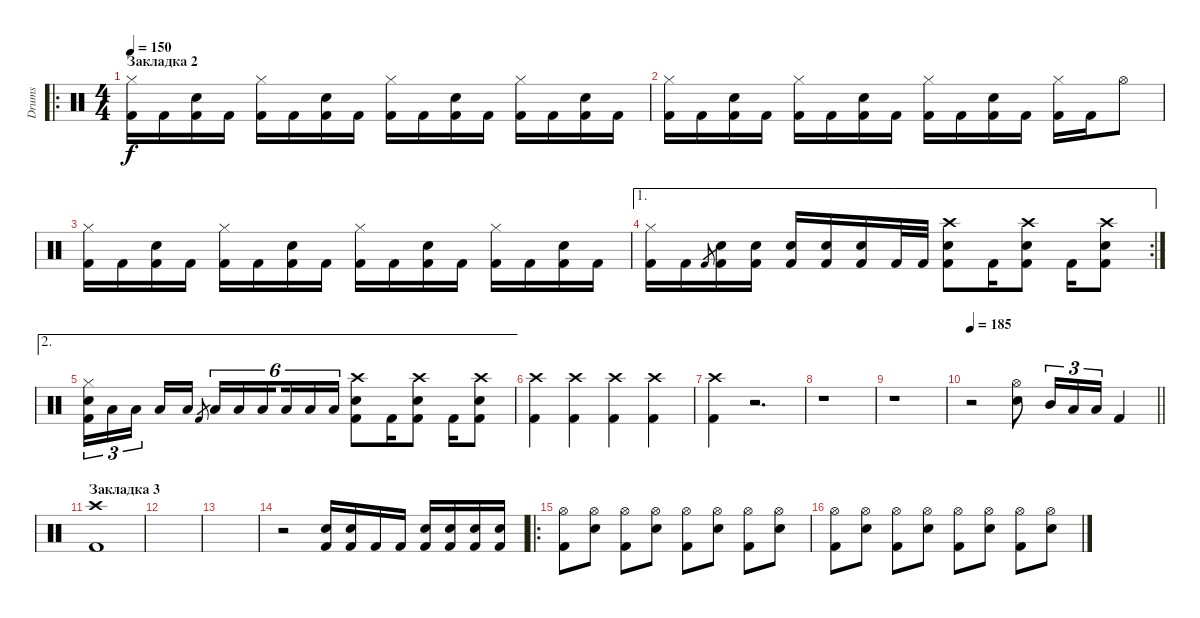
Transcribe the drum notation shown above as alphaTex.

\track ("Drums" "Drums") {instrument percussion}
\staff {score}
\articulation defaults
\ro
\ts (4 4)
\section ("" "Закладка 2")
\tempo 150
\clef neutral
\ks c
("Hi-Hat (closed)" "Kick (hit) 2").16{dy f} "Kick (hit) 2".16 ("Snare (hit) 2" "Kick (hit) 2").16 "Kick (hit) 2".16 ("Hi-Hat (closed)" "Kick (hit) 2").16 "Kick (hit) 2".16 ("Snare (hit) 2" "Kick (hit) 2").16 "Kick (hit) 2".16 ("Hi-Hat (closed)" "Kick (hit) 2").16 "Kick (hit) 2".16 ("Snare (hit) 2" "Kick (hit) 2").16 "Kick (hit) 2".16 ("Hi-Hat (closed)" "Kick (hit) 2").16 "Kick (hit) 2".16 ("Snare (hit) 2" "Kick (hit) 2").16 "Kick (hit) 2".16 |
("Hi-Hat (closed)" "Kick (hit) 2").16 "Kick (hit) 2".16 ("Snare (hit) 2" "Kick (hit) 2").16 "Kick (hit) 2".16 ("Hi-Hat (closed)" "Kick (hit) 2").16 "Kick (hit) 2".16 ("Snare (hit) 2" "Kick (hit) 2").16 "Kick (hit) 2".16 ("Hi-Hat (closed)" "Kick (hit) 2").16 "Kick (hit) 2".16 ("Snare (hit) 2" "Kick (hit) 2").16 "Kick (hit) 2".16 ("Hi-Hat (closed)" "Kick (hit) 2").16 "Kick (hit) 2".16 "Hi-Hat (open)".8 |
("Hi-Hat (closed)" "Kick (hit) 2").16 "Kick (hit) 2".16 ("Snare (hit) 2" "Kick (hit) 2").16 "Kick (hit) 2".16 ("Hi-Hat (closed)" "Kick (hit) 2").16 "Kick (hit) 2".16 ("Snare (hit) 2" "Kick (hit) 2").16 "Kick (hit) 2".16 ("Hi-Hat (closed)" "Kick (hit) 2").16 "Kick (hit) 2".16 ("Snare (hit) 2" "Kick (hit) 2").16 "Kick (hit) 2".16 ("Hi-Hat (closed)" "Kick (hit) 2").16 "Kick (hit) 2".16 ("Snare (hit) 2" "Kick (hit) 2").16 "Kick (hit) 2".16 |
\ae 1
\rc 2
("Hi-Hat (closed)" "Kick (hit) 2").16 "Kick (hit) 2".16 "Kick (hit) 2".8{gr} ("Snare (hit) 2" "Kick (hit) 2").16 ("Snare (hit) 2" "Kick (hit) 2").16 ("Snare (hit) 2" "Kick (hit) 2").16 ("Snare (hit) 2" "Kick (hit) 2").16 ("Snare (hit) 2" "Kick (hit) 2").16 "Kick (hit) 2".32 "Kick (hit) 2".32 ("Snare (hit) 2" "Crash high (hit)" "Kick (hit) 2").8 "Kick (hit) 2".16 ("Snare (hit) 2" "Crash high (hit)" "Kick (hit) 2").8 "Kick (hit) 2".16 ("Snare (hit) 2" "Crash high (hit)" "Kick (hit) 2").8 |
\ae 2
("Hi-Hat (closed)" "Snare (hit) 2" "Kick (hit) 2").16{tu (3 2)} "Low Tom (hit)".16{tu (3 2)} "Low Tom (hit)".16{tu (3 2) beam splitsecondary} "Low Floor Tom (hit)".16 "Low Floor Tom (hit)".16 "Kick (hit) 2".8{gr} "Low Tom (hit)".16{tu (6 4)} "Low Tom (hit)".16{tu (6 4)} "Low Tom (hit)".16{tu (6 4) beam splitsecondary} "Low Floor Tom (hit)".16{tu (6 4)} "Low Floor Tom (hit)".16{tu (6 4)} "Low Floor Tom (hit)".16{tu (6 4)} ("Snare (hit) 2" "Crash high (hit)" "Kick (hit) 2").8 "Kick (hit) 2".16 ("Snare (hit) 2" "Crash high (hit)" "Kick (hit) 2").8 "Kick (hit) 2".16 ("Snare (hit) 2" "Crash high (hit)" "Kick (hit) 2").8 |
("Crash high (hit)" "Kick (hit) 2").4 ("Crash high (hit)" "Kick (hit) 2").4 ("Crash high (hit)" "Kick (hit) 2").4 ("Crash high (hit)" "Kick (hit) 2").4 |
("Crash high (hit)" "Kick (hit) 2").4 r.2{d} |
r.1 |
r.1 |
\tempo 185
\barLineRight lightlight
r.2 ("Hi-Hat (open)" "Snare (hit) 2").8 "Mid Tom (hit)".16{tu (3 2)} "Low Tom (hit)".16{tu (3 2)} "Low Floor Tom (hit)".16{tu (3 2)} "Kick (hit) 2".4 |
\section ("" "Закладка 3")
("Crash high (hit)" "Kick (hit) 2").1 |
|
|
r.2 ("Snare (hit) 2" "Kick (hit) 2").16 ("Snare (hit) 2" "Kick (hit) 2").16 "Kick (hit) 2".16 "Kick (hit) 2".16 ("Snare (hit) 2" "Kick (hit) 2").16 ("Snare (hit) 2" "Kick (hit) 2").16 ("Snare (hit) 2" "Kick (hit) 2").16 ("Snare (hit) 2" "Kick (hit) 2").16 |
\ro
("Kick (hit) 2" "Hi-Hat (open)").8 ("Snare (hit) 2" "Hi-Hat (open)").8 ("Kick (hit) 2" "Hi-Hat (open)").8 ("Snare (hit) 2" "Hi-Hat (open)").8 ("Kick (hit) 2" "Hi-Hat (open)").8 ("Snare (hit) 2" "Hi-Hat (open)").8 ("Kick (hit) 2" "Hi-Hat (open)").8 ("Snare (hit) 2" "Hi-Hat (open)").8 |
("Kick (hit) 2" "Hi-Hat (open)").8 ("Snare (hit) 2" "Hi-Hat (open)").8 ("Kick (hit) 2" "Hi-Hat (open)").8 ("Snare (hit) 2" "Hi-Hat (open)").8 ("Kick (hit) 2" "Hi-Hat (open)").8 ("Snare (hit) 2" "Hi-Hat (open)").8 ("Kick (hit) 2" "Hi-Hat (open)").8 ("Snare (hit) 2" "Hi-Hat (open)").8
